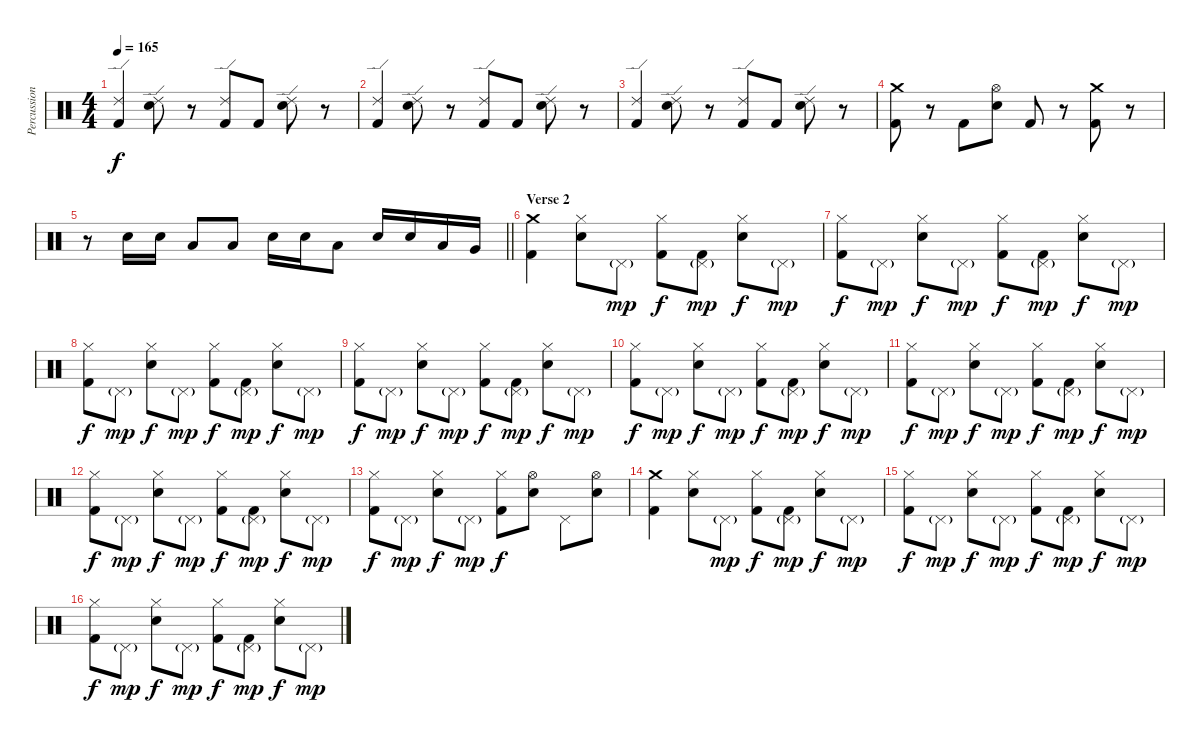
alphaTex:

\track ("Percussion" "Percussion") {instrument percussion}
\staff {score}
\articulation defaults
\ts (4 4)
\tempo 165
\clef neutral
\ks c
("Ride (edge) 2" "Kick (hit) 2").4{dy f} ("Ride (edge) 2" "Electric Snare (hit)").8 r.8 ("Ride (edge) 2" "Kick (hit) 2").8 "Kick (hit) 2".8 ("Ride (edge) 2" "Electric Snare (hit)").8 r.8 |
("Ride (edge) 2" "Kick (hit) 2").4 ("Ride (edge) 2" "Electric Snare (hit)").8 r.8 ("Ride (edge) 2" "Kick (hit) 2").8 "Kick (hit) 2".8 ("Ride (edge) 2" "Electric Snare (hit)").8 r.8 |
("Ride (edge) 2" "Kick (hit) 2").4 ("Ride (edge) 2" "Electric Snare (hit)").8 r.8 ("Ride (edge) 2" "Kick (hit) 2").8 "Kick (hit) 2".8 ("Ride (edge) 2" "Electric Snare (hit)").8 r.8 |
("Crash medium (hit)" "Kick (hit) 2").8 r.8 "Kick (hit) 2".8 ("Hi-Hat (open)" "Electric Snare (hit)").8 "Kick (hit) 2".8 r.8 ("Crash medium (hit)" "Kick (hit) 2").8 r.8 |
\barLineRight lightlight
r.8 "Electric Snare (hit)".16 "Electric Snare (hit)".16 "Low Tom (hit)".8 "Low Tom (hit)".8 "Electric Snare (hit)".16 "Electric Snare (hit)".16 "Low Tom (hit)".8 "Electric Snare (hit)".16 "Electric Snare (hit)".16 "Low Tom (hit)".16 "Very Low Tom (hit)".16 |
\section ("" "Verse 2")
("Crash medium (hit)" "Kick (hit) 2").4 ("Hi-Hat (closed)" "Electric Snare (hit)").8 "Pedal Hi-Hat (hit)"{g}.8{dy mp} ("Hi-Hat (closed)" "Kick (hit) 2").8{dy f} ("Pedal Hi-Hat (hit)"{g} "Kick (hit) 2").8{dy mp} ("Hi-Hat (closed)" "Electric Snare (hit)").8{dy f} "Pedal Hi-Hat (hit)"{g}.8{dy mp} |
("Hi-Hat (closed)" "Kick (hit) 2").8{dy f} "Pedal Hi-Hat (hit)"{g}.8{dy mp} ("Hi-Hat (closed)" "Electric Snare (hit)").8{dy f} "Pedal Hi-Hat (hit)"{g}.8{dy mp} ("Hi-Hat (closed)" "Kick (hit) 2").8{dy f} ("Pedal Hi-Hat (hit)"{g} "Kick (hit) 2").8{dy mp} ("Hi-Hat (closed)" "Electric Snare (hit)").8{dy f} "Pedal Hi-Hat (hit)"{g}.8{dy mp} |
("Hi-Hat (closed)" "Kick (hit) 2").8{dy f} "Pedal Hi-Hat (hit)"{g}.8{dy mp} ("Hi-Hat (closed)" "Electric Snare (hit)").8{dy f} "Pedal Hi-Hat (hit)"{g}.8{dy mp} ("Hi-Hat (closed)" "Kick (hit) 2").8{dy f} ("Pedal Hi-Hat (hit)"{g} "Kick (hit) 2").8{dy mp} ("Hi-Hat (closed)" "Electric Snare (hit)").8{dy f} "Pedal Hi-Hat (hit)"{g}.8{dy mp} |
("Hi-Hat (closed)" "Kick (hit) 2").8{dy f} "Pedal Hi-Hat (hit)"{g}.8{dy mp} ("Hi-Hat (closed)" "Electric Snare (hit)").8{dy f} "Pedal Hi-Hat (hit)"{g}.8{dy mp} ("Hi-Hat (closed)" "Kick (hit) 2").8{dy f} ("Pedal Hi-Hat (hit)"{g} "Kick (hit) 2").8{dy mp} ("Hi-Hat (closed)" "Electric Snare (hit)").8{dy f} "Pedal Hi-Hat (hit)"{g}.8{dy mp} |
("Hi-Hat (closed)" "Kick (hit) 2").8{dy f} "Pedal Hi-Hat (hit)"{g}.8{dy mp} ("Hi-Hat (closed)" "Electric Snare (hit)").8{dy f} "Pedal Hi-Hat (hit)"{g}.8{dy mp} ("Hi-Hat (closed)" "Kick (hit) 2").8{dy f} ("Pedal Hi-Hat (hit)"{g} "Kick (hit) 2").8{dy mp} ("Hi-Hat (closed)" "Electric Snare (hit)").8{dy f} "Pedal Hi-Hat (hit)"{g}.8{dy mp} |
("Hi-Hat (closed)" "Kick (hit) 2").8{dy f} "Pedal Hi-Hat (hit)"{g}.8{dy mp} ("Hi-Hat (closed)" "Electric Snare (hit)").8{dy f} "Pedal Hi-Hat (hit)"{g}.8{dy mp} ("Hi-Hat (closed)" "Kick (hit) 2").8{dy f} ("Pedal Hi-Hat (hit)"{g} "Kick (hit) 2").8{dy mp} ("Hi-Hat (closed)" "Electric Snare (hit)").8{dy f} "Pedal Hi-Hat (hit)"{g}.8{dy mp} |
("Hi-Hat (closed)" "Kick (hit) 2").8{dy f} "Pedal Hi-Hat (hit)"{g}.8{dy mp} ("Hi-Hat (closed)" "Electric Snare (hit)").8{dy f} "Pedal Hi-Hat (hit)"{g}.8{dy mp} ("Hi-Hat (closed)" "Kick (hit) 2").8{dy f} ("Pedal Hi-Hat (hit)"{g} "Kick (hit) 2").8{dy mp} ("Hi-Hat (closed)" "Electric Snare (hit)").8{dy f} "Pedal Hi-Hat (hit)"{g}.8{dy mp} |
("Hi-Hat (closed)" "Kick (hit) 2").8{dy f} "Pedal Hi-Hat (hit)"{g}.8{dy mp} ("Hi-Hat (closed)" "Electric Snare (hit)").8{dy f} "Pedal Hi-Hat (hit)"{g}.8{dy mp} ("Hi-Hat (closed)" "Kick (hit) 2").8{dy f} ("Hi-Hat (open)" "Electric Snare (hit)").8 "Pedal Hi-Hat (hit)".8 ("Hi-Hat (open)" "Electric Snare (hit)").8 |
("Crash medium (hit)" "Kick (hit) 2").4 ("Hi-Hat (closed)" "Electric Snare (hit)").8 "Pedal Hi-Hat (hit)"{g}.8{dy mp} ("Hi-Hat (closed)" "Kick (hit) 2").8{dy f} ("Pedal Hi-Hat (hit)"{g} "Kick (hit) 2").8{dy mp} ("Hi-Hat (closed)" "Electric Snare (hit)").8{dy f} "Pedal Hi-Hat (hit)"{g}.8{dy mp} |
("Hi-Hat (closed)" "Kick (hit) 2").8{dy f} "Pedal Hi-Hat (hit)"{g}.8{dy mp} ("Hi-Hat (closed)" "Electric Snare (hit)").8{dy f} "Pedal Hi-Hat (hit)"{g}.8{dy mp} ("Hi-Hat (closed)" "Kick (hit) 2").8{dy f} ("Pedal Hi-Hat (hit)"{g} "Kick (hit) 2").8{dy mp} ("Hi-Hat (closed)" "Electric Snare (hit)").8{dy f} "Pedal Hi-Hat (hit)"{g}.8{dy mp} |
("Hi-Hat (closed)" "Kick (hit) 2").8{dy f} "Pedal Hi-Hat (hit)"{g}.8{dy mp} ("Hi-Hat (closed)" "Electric Snare (hit)").8{dy f} "Pedal Hi-Hat (hit)"{g}.8{dy mp} ("Hi-Hat (closed)" "Kick (hit) 2").8{dy f} ("Pedal Hi-Hat (hit)"{g} "Kick (hit) 2").8{dy mp} ("Hi-Hat (closed)" "Electric Snare (hit)").8{dy f} "Pedal Hi-Hat (hit)"{g}.8{dy mp}
